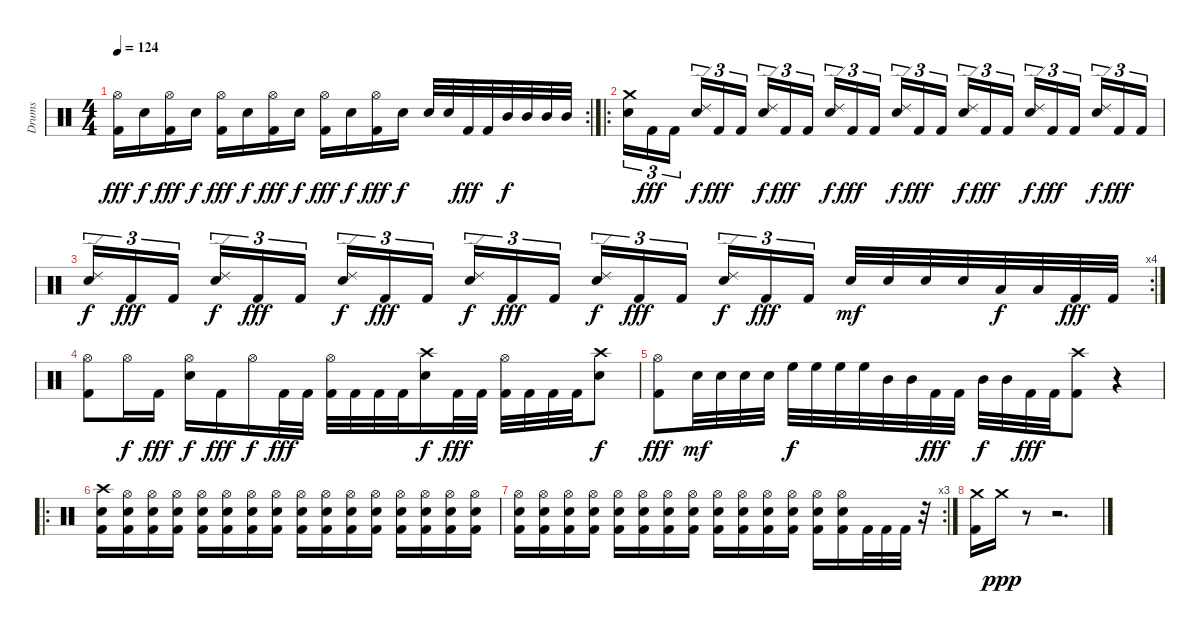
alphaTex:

\track ("Drums" "Drums") {instrument percussion}
\staff {score}
\articulation defaults
\rc 2
\ts (4 4)
\tempo 124
\clef neutral
\ks c
("Hi-Hat (open)" "Kick (hit) 2").16{dy fff} "Electric Snare (hit)".16{dy f} ("Hi-Hat (open)" "Kick (hit) 2").16{dy fff} "Electric Snare (hit)".16{dy f} ("Hi-Hat (open)" "Kick (hit) 2").16{dy fff} "Electric Snare (hit)".16{dy f} ("Hi-Hat (open)" "Kick (hit) 2").16{dy fff} "Electric Snare (hit)".16{dy f} ("Hi-Hat (open)" "Kick (hit) 2").16{dy fff} "Electric Snare (hit)".16{dy f} ("Hi-Hat (open)" "Kick (hit) 2").16{dy fff} "Electric Snare (hit)".16{dy f} "Electric Snare (hit)".32 "Electric Snare (hit)".32 "Kick (hit) 2".32{dy fff} "Kick (hit) 2".32 "Mid Tom (hit)".32{dy f} "Mid Tom (hit)".32 "Mid Tom (hit)".32 "Mid Tom (hit)".32 |
\ro
("Crash medium (hit)" "Electric Snare (hit)").16{tu (3 2)} "Kick (hit) 2".16{tu (3 2) dy fff} "Kick (hit) 2".16{tu (3 2)} ("Ride (edge) 2" "Electric Snare (hit)").16{tu (3 2) dy f} "Kick (hit) 2".16{tu (3 2) dy fff} "Kick (hit) 2".16{tu (3 2)} ("Ride (edge) 2" "Electric Snare (hit)").16{tu (3 2) dy f} "Kick (hit) 2".16{tu (3 2) dy fff} "Kick (hit) 2".16{tu (3 2)} ("Ride (edge) 2" "Electric Snare (hit)").16{tu (3 2) dy f} "Kick (hit) 2".16{tu (3 2) dy fff} "Kick (hit) 2".16{tu (3 2)} ("Ride (edge) 2" "Electric Snare (hit)").16{tu (3 2) dy f} "Kick (hit) 2".16{tu (3 2) dy fff} "Kick (hit) 2".16{tu (3 2)} ("Ride (edge) 2" "Electric Snare (hit)").16{tu (3 2) dy f} "Kick (hit) 2".16{tu (3 2) dy fff} "Kick (hit) 2".16{tu (3 2)} ("Ride (edge) 2" "Electric Snare (hit)").16{tu (3 2) dy f} "Kick (hit) 2".16{tu (3 2) dy fff} "Kick (hit) 2".16{tu (3 2)} ("Ride (edge) 2" "Electric Snare (hit)").16{tu (3 2) dy f} "Kick (hit) 2".16{tu (3 2) dy fff} "Kick (hit) 2".16{tu (3 2)} |
\rc 4
("Ride (edge) 2" "Electric Snare (hit)").16{tu (3 2) dy f} "Kick (hit) 2".16{tu (3 2) dy fff} "Kick (hit) 2".16{tu (3 2)} ("Ride (edge) 2" "Electric Snare (hit)").16{tu (3 2) dy f} "Kick (hit) 2".16{tu (3 2) dy fff} "Kick (hit) 2".16{tu (3 2)} ("Ride (edge) 2" "Electric Snare (hit)").16{tu (3 2) dy f} "Kick (hit) 2".16{tu (3 2) dy fff} "Kick (hit) 2".16{tu (3 2)} ("Ride (edge) 2" "Electric Snare (hit)").16{tu (3 2) dy f} "Kick (hit) 2".16{tu (3 2) dy fff} "Kick (hit) 2".16{tu (3 2)} ("Ride (edge) 2" "Electric Snare (hit)").16{tu (3 2) dy f} "Kick (hit) 2".16{tu (3 2) dy fff} "Kick (hit) 2".16{tu (3 2)} ("Ride (edge) 2" "Electric Snare (hit)").16{tu (3 2) dy f} "Kick (hit) 2".16{tu (3 2) dy fff} "Kick (hit) 2".16{tu (3 2)} "Electric Snare (hit)".32{dy mf} "Electric Snare (hit)".32 "Electric Snare (hit)".32 "Electric Snare (hit)".32 "Low Tom (hit)".32{dy f} "Low Tom (hit)".32 "Kick (hit) 2".32{dy fff} "Kick (hit) 2".32 |
("Hi-Hat (open)" "Kick (hit) 2").8 "Hi-Hat (open)".16{dy f} "Kick (hit) 2".16{dy fff} ("Hi-Hat (open)" "Electric Snare (hit)").16{dy f} "Kick (hit) 2".16{dy fff} "Hi-Hat (open)".16{dy f} "Kick (hit) 2".32{dy fff} "Kick (hit) 2".32 ("Hi-Hat (open)" "Kick (hit) 2").32 "Kick (hit) 2".32 "Kick (hit) 2".32 "Kick (hit) 2".32 ("Crash high (hit)" "Electric Snare (hit)").16{dy f} "Kick (hit) 2".32{dy fff} "Kick (hit) 2".32 ("Hi-Hat (open)" "Kick (hit) 2").32 "Kick (hit) 2".32 "Kick (hit) 2".32 "Kick (hit) 2".32 ("Crash high (hit)" "Electric Snare (hit)").8{dy f} |
("Hi-Hat (open)" "Kick (hit) 2").8{dy fff} "Electric Snare (hit)".32{dy mf} "Electric Snare (hit)".32 "Electric Snare (hit)".32 "Electric Snare (hit)".32 "High Floor Tom (hit)".32{dy f} "High Floor Tom (hit)".32 "High Floor Tom (hit)".32 "High Floor Tom (hit)".32 "Mid Tom (hit)".32 "Mid Tom (hit)".32 "Kick (hit) 2".32{dy fff} "Kick (hit) 2".32 "Mid Tom (hit)".32{dy f} "Mid Tom (hit)".32 "Kick (hit) 2".32{dy fff} "Kick (hit) 2".32 ("Crash high (hit)" "Kick (hit) 2").8 r.4 |
\ro
("Crash high (hit)" "Electric Snare (hit)" "Kick (hit) 2").16 ("Hi-Hat (open)" "Electric Snare (hit)" "Kick (hit) 2").16 ("Hi-Hat (open)" "Electric Snare (hit)" "Kick (hit) 2").16 ("Hi-Hat (open)" "Electric Snare (hit)" "Kick (hit) 2").16 ("Hi-Hat (open)" "Electric Snare (hit)" "Kick (hit) 2").16 ("Hi-Hat (open)" "Electric Snare (hit)" "Kick (hit) 2").16 ("Hi-Hat (open)" "Electric Snare (hit)" "Kick (hit) 2").16 ("Hi-Hat (open)" "Electric Snare (hit)" "Kick (hit) 2").16 ("Hi-Hat (open)" "Electric Snare (hit)" "Kick (hit) 2").16 ("Hi-Hat (open)" "Electric Snare (hit)" "Kick (hit) 2").16 ("Hi-Hat (open)" "Electric Snare (hit)" "Kick (hit) 2").16 ("Hi-Hat (open)" "Electric Snare (hit)" "Kick (hit) 2").16 ("Hi-Hat (open)" "Electric Snare (hit)" "Kick (hit) 2").16 ("Hi-Hat (open)" "Electric Snare (hit)" "Kick (hit) 2").16 ("Hi-Hat (open)" "Electric Snare (hit)" "Kick (hit) 2").16 ("Hi-Hat (open)" "Electric Snare (hit)" "Kick (hit) 2").16 |
\rc 3
("Hi-Hat (open)" "Electric Snare (hit)" "Kick (hit) 2").16 ("Hi-Hat (open)" "Electric Snare (hit)" "Kick (hit) 2").16 ("Hi-Hat (open)" "Electric Snare (hit)" "Kick (hit) 2").16 ("Hi-Hat (open)" "Electric Snare (hit)" "Kick (hit) 2").16 ("Hi-Hat (open)" "Electric Snare (hit)" "Kick (hit) 2").16 ("Hi-Hat (open)" "Electric Snare (hit)" "Kick (hit) 2").16 ("Hi-Hat (open)" "Electric Snare (hit)" "Kick (hit) 2").16 ("Hi-Hat (open)" "Electric Snare (hit)" "Kick (hit) 2").16 ("Hi-Hat (open)" "Electric Snare (hit)" "Kick (hit) 2").16 ("Hi-Hat (open)" "Electric Snare (hit)" "Kick (hit) 2").16 ("Hi-Hat (open)" "Electric Snare (hit)" "Kick (hit) 2").16 ("Hi-Hat (open)" "Electric Snare (hit)" "Kick (hit) 2").16 ("Hi-Hat (open)" "Electric Snare (hit)" "Kick (hit) 2").16 ("Hi-Hat (open)" "Electric Snare (hit)" "Kick (hit) 2").16 "Kick (hit) 2".32 "Kick (hit) 2".32 "Kick (hit) 2".32 r.32 |
("Crash medium (hit)" "Kick (hit) 2").16 "Crash medium (hit)".16{dy ppp} r.8 r.2{d}
